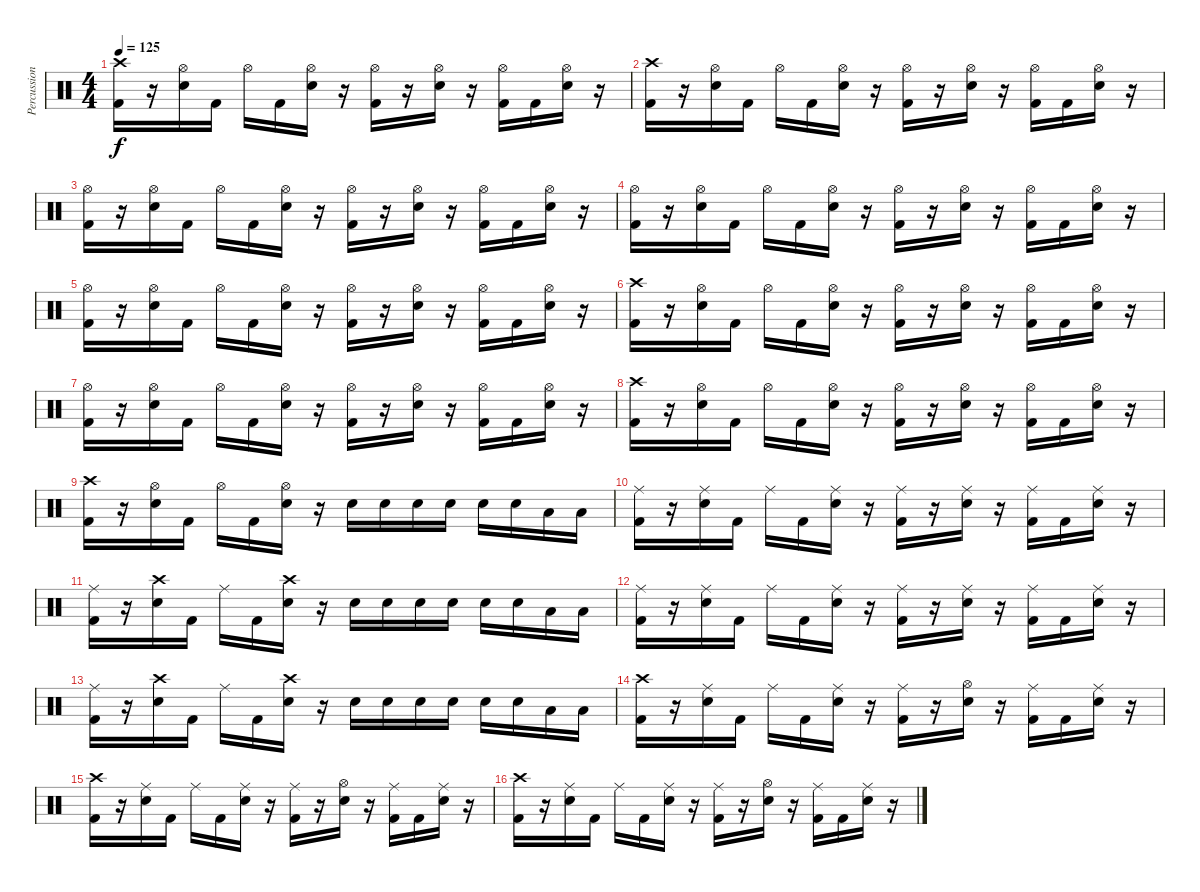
\track ("Percussion" "Percussion") {instrument percussion}
\staff {score}
\articulation defaults
\ts (4 4)
\tempo 125
\clef neutral
\ks c
("Kick (hit) 2" "Crash high (hit)").16{dy f} r.16 ("Snare (hit) 2" "Hi-Hat (open)").16 "Kick (hit) 2".16 "Hi-Hat (open)".16 "Kick (hit) 2".16 ("Snare (hit) 2" "Hi-Hat (open)").16 r.16 ("Kick (hit) 2" "Hi-Hat (open)").16 r.16 ("Snare (hit) 2" "Hi-Hat (open)").16 r.16 ("Kick (hit) 2" "Hi-Hat (open)").16 "Kick (hit) 2".16 ("Snare (hit) 2" "Hi-Hat (open)").16 r.16 |
("Kick (hit) 2" "Crash high (hit)").16 r.16 ("Snare (hit) 2" "Hi-Hat (open)").16 "Kick (hit) 2".16 "Hi-Hat (open)".16 "Kick (hit) 2".16 ("Snare (hit) 2" "Hi-Hat (open)").16 r.16 ("Kick (hit) 2" "Hi-Hat (open)").16 r.16 ("Snare (hit) 2" "Hi-Hat (open)").16 r.16 ("Kick (hit) 2" "Hi-Hat (open)").16 "Kick (hit) 2".16 ("Snare (hit) 2" "Hi-Hat (open)").16 r.16 |
("Kick (hit) 2" "Hi-Hat (open)").16 r.16 ("Snare (hit) 2" "Hi-Hat (open)").16 "Kick (hit) 2".16 "Hi-Hat (open)".16 "Kick (hit) 2".16 ("Snare (hit) 2" "Hi-Hat (open)").16 r.16 ("Kick (hit) 2" "Hi-Hat (open)").16 r.16 ("Snare (hit) 2" "Hi-Hat (open)").16 r.16 ("Kick (hit) 2" "Hi-Hat (open)").16 "Kick (hit) 2".16 ("Snare (hit) 2" "Hi-Hat (open)").16 r.16 |
("Kick (hit) 2" "Hi-Hat (open)").16 r.16 ("Snare (hit) 2" "Hi-Hat (open)").16 "Kick (hit) 2".16 "Hi-Hat (open)".16 "Kick (hit) 2".16 ("Snare (hit) 2" "Hi-Hat (open)").16 r.16 ("Kick (hit) 2" "Hi-Hat (open)").16 r.16 ("Snare (hit) 2" "Hi-Hat (open)").16 r.16 ("Kick (hit) 2" "Hi-Hat (open)").16 "Kick (hit) 2".16 ("Snare (hit) 2" "Hi-Hat (open)").16 r.16 |
("Kick (hit) 2" "Hi-Hat (open)").16 r.16 ("Snare (hit) 2" "Hi-Hat (open)").16 "Kick (hit) 2".16 "Hi-Hat (open)".16 "Kick (hit) 2".16 ("Snare (hit) 2" "Hi-Hat (open)").16 r.16 ("Kick (hit) 2" "Hi-Hat (open)").16 r.16 ("Snare (hit) 2" "Hi-Hat (open)").16 r.16 ("Kick (hit) 2" "Hi-Hat (open)").16 "Kick (hit) 2".16 ("Snare (hit) 2" "Hi-Hat (open)").16 r.16 |
("Kick (hit) 2" "Crash high (hit)").16 r.16 ("Snare (hit) 2" "Hi-Hat (open)").16 "Kick (hit) 2".16 "Hi-Hat (open)".16 "Kick (hit) 2".16 ("Snare (hit) 2" "Hi-Hat (open)").16 r.16 ("Kick (hit) 2" "Hi-Hat (open)").16 r.16 ("Snare (hit) 2" "Hi-Hat (open)").16 r.16 ("Kick (hit) 2" "Hi-Hat (open)").16 "Kick (hit) 2".16 ("Snare (hit) 2" "Hi-Hat (open)").16 r.16 |
("Kick (hit) 2" "Hi-Hat (open)").16 r.16 ("Snare (hit) 2" "Hi-Hat (open)").16 "Kick (hit) 2".16 "Hi-Hat (open)".16 "Kick (hit) 2".16 ("Snare (hit) 2" "Hi-Hat (open)").16 r.16 ("Kick (hit) 2" "Hi-Hat (open)").16 r.16 ("Snare (hit) 2" "Hi-Hat (open)").16 r.16 ("Kick (hit) 2" "Hi-Hat (open)").16 "Kick (hit) 2".16 ("Snare (hit) 2" "Hi-Hat (open)").16 r.16 |
("Kick (hit) 2" "Crash high (hit)").16 r.16 ("Snare (hit) 2" "Hi-Hat (open)").16 "Kick (hit) 2".16 "Hi-Hat (open)".16 "Kick (hit) 2".16 ("Snare (hit) 2" "Hi-Hat (open)").16 r.16 ("Kick (hit) 2" "Hi-Hat (open)").16 r.16 ("Snare (hit) 2" "Hi-Hat (open)").16 r.16 ("Kick (hit) 2" "Hi-Hat (open)").16 "Kick (hit) 2".16 ("Snare (hit) 2" "Hi-Hat (open)").16 r.16 |
("Kick (hit) 2" "Crash high (hit)").16 r.16 ("Snare (hit) 2" "Hi-Hat (open)").16 "Kick (hit) 2".16 "Hi-Hat (open)".16 "Kick (hit) 2".16 ("Snare (hit) 2" "Hi-Hat (open)").16 r.16 "Snare (hit) 2".16 "Snare (hit) 2".16 "Snare (hit) 2".16 "Snare (hit) 2".16 "Snare (hit) 2".16 "Snare (hit) 2".16 "Low Tom (hit)".16 "Low Tom (hit)".16 |
("Kick (hit) 2" "Ride (middle)").16 r.16 ("Snare (hit) 2" "Ride (middle)").16 "Kick (hit) 2".16 "Ride (middle)".16 "Kick (hit) 2".16 ("Snare (hit) 2" "Ride (middle)").16 r.16 ("Kick (hit) 2" "Ride (middle)").16 r.16 ("Snare (hit) 2" "Ride (middle)").16 r.16 ("Kick (hit) 2" "Ride (middle)").16 "Kick (hit) 2".16 ("Snare (hit) 2" "Ride (middle)").16 r.16 |
("Kick (hit) 2" "Ride (middle)").16 r.16 ("Snare (hit) 2" "Crash high (hit)").16 "Kick (hit) 2".16 "Ride (middle)".16 "Kick (hit) 2".16 ("Snare (hit) 2" "Crash high (hit)").16 r.16 "Snare (hit) 2".16 "Snare (hit) 2".16 "Snare (hit) 2".16 "Snare (hit) 2".16 "Snare (hit) 2".16 "Snare (hit) 2".16 "Low Tom (hit)".16 "Low Tom (hit)".16 |
("Kick (hit) 2" "Ride (middle)").16 r.16 ("Snare (hit) 2" "Ride (middle)").16 "Kick (hit) 2".16 "Ride (middle)".16 "Kick (hit) 2".16 ("Snare (hit) 2" "Ride (middle)").16 r.16 ("Kick (hit) 2" "Ride (middle)").16 r.16 ("Snare (hit) 2" "Ride (middle)").16 r.16 ("Kick (hit) 2" "Ride (middle)").16 "Kick (hit) 2".16 ("Snare (hit) 2" "Ride (middle)").16 r.16 |
("Kick (hit) 2" "Ride (middle)").16 r.16 ("Snare (hit) 2" "Crash high (hit)").16 "Kick (hit) 2".16 "Ride (middle)".16 "Kick (hit) 2".16 ("Snare (hit) 2" "Crash high (hit)").16 r.16 "Snare (hit) 2".16 "Snare (hit) 2".16 "Snare (hit) 2".16 "Snare (hit) 2".16 "Snare (hit) 2".16 "Snare (hit) 2".16 "Low Tom (hit)".16 "Low Tom (hit)".16 |
("Kick (hit) 2" "Crash high (hit)").16 r.16 ("Snare (hit) 2" "Ride (middle)").16 "Kick (hit) 2".16 "Ride (middle)".16 "Kick (hit) 2".16 ("Snare (hit) 2" "Ride (middle)").16 r.16 ("Kick (hit) 2" "Ride (middle)").16 r.16 ("Snare (hit) 2" "Hi-Hat (open)").16 r.16 ("Kick (hit) 2" "Ride (middle)").16 "Kick (hit) 2".16 ("Snare (hit) 2" "Ride (middle)").16 r.16 |
("Kick (hit) 2" "Crash high (hit)").16 r.16 ("Snare (hit) 2" "Ride (middle)").16 "Kick (hit) 2".16 "Ride (middle)".16 "Kick (hit) 2".16 ("Snare (hit) 2" "Ride (middle)").16 r.16 ("Kick (hit) 2" "Ride (middle)").16 r.16 ("Snare (hit) 2" "Hi-Hat (open)").16 r.16 ("Kick (hit) 2" "Ride (middle)").16 "Kick (hit) 2".16 ("Snare (hit) 2" "Ride (middle)").16 r.16 |
("Kick (hit) 2" "Crash high (hit)").16 r.16 ("Snare (hit) 2" "Ride (middle)").16 "Kick (hit) 2".16 "Ride (middle)".16 "Kick (hit) 2".16 ("Snare (hit) 2" "Ride (middle)").16 r.16 ("Kick (hit) 2" "Ride (middle)").16 r.16 ("Snare (hit) 2" "Hi-Hat (open)").16 r.16 ("Kick (hit) 2" "Ride (middle)").16 "Kick (hit) 2".16 ("Snare (hit) 2" "Ride (middle)").16 r.16
